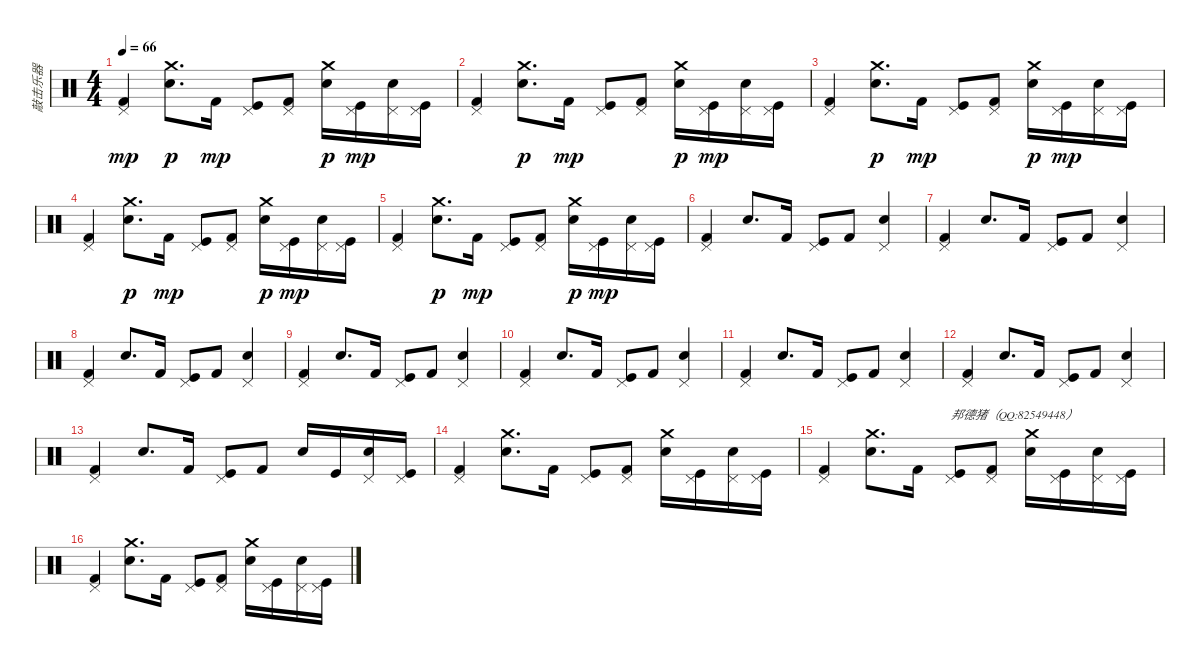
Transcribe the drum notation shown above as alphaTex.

\track ("敲击乐器" "敲击乐器") {instrument percussion}
\staff {score}
\articulation defaults
\ts (4 4)
\tempo 66
\clef neutral
\ks c
("Kick (hit) 2" "Pedal Hi-Hat (hit)").4{dy mp} ("Snare (hit) 2" "Crash medium (hit)").8{d dy p} "Kick (hit) 2".16{dy mp} ("Kick (hit)" "Pedal Hi-Hat (hit)").8 ("Kick (hit) 2" "Pedal Hi-Hat (hit)").8 ("Snare (hit) 2" "Crash medium (hit)").16{dy p} ("Kick (hit)" "Pedal Hi-Hat (hit)").16{dy mp} ("Snare (hit) 2" "Pedal Hi-Hat (hit)").16 ("Kick (hit)" "Pedal Hi-Hat (hit)").16 |
("Kick (hit) 2" "Pedal Hi-Hat (hit)").4 ("Snare (hit) 2" "Crash medium (hit)").8{d dy p} "Kick (hit) 2".16{dy mp} ("Kick (hit)" "Pedal Hi-Hat (hit)").8 ("Kick (hit) 2" "Pedal Hi-Hat (hit)").8 ("Snare (hit) 2" "Crash medium (hit)").16{dy p} ("Kick (hit)" "Pedal Hi-Hat (hit)").16{dy mp} ("Snare (hit) 2" "Pedal Hi-Hat (hit)").16 ("Kick (hit)" "Pedal Hi-Hat (hit)").16 |
("Kick (hit) 2" "Pedal Hi-Hat (hit)").4 ("Snare (hit) 2" "Crash medium (hit)").8{d dy p} "Kick (hit) 2".16{dy mp} ("Kick (hit)" "Pedal Hi-Hat (hit)").8 ("Kick (hit) 2" "Pedal Hi-Hat (hit)").8 ("Snare (hit) 2" "Crash medium (hit)").16{dy p} ("Kick (hit)" "Pedal Hi-Hat (hit)").16{dy mp} ("Snare (hit) 2" "Pedal Hi-Hat (hit)").16 ("Kick (hit)" "Pedal Hi-Hat (hit)").16 |
("Kick (hit) 2" "Pedal Hi-Hat (hit)").4 ("Snare (hit) 2" "Crash medium (hit)").8{d dy p} "Kick (hit) 2".16{dy mp} ("Kick (hit)" "Pedal Hi-Hat (hit)").8 ("Kick (hit) 2" "Pedal Hi-Hat (hit)").8 ("Snare (hit) 2" "Crash medium (hit)").16{dy p} ("Kick (hit)" "Pedal Hi-Hat (hit)").16{dy mp} ("Snare (hit) 2" "Pedal Hi-Hat (hit)").16 ("Kick (hit)" "Pedal Hi-Hat (hit)").16 |
("Kick (hit) 2" "Pedal Hi-Hat (hit)").4 ("Snare (hit) 2" "Crash medium (hit)").8{d dy p} "Kick (hit) 2".16{dy mp} ("Kick (hit)" "Pedal Hi-Hat (hit)").8 ("Kick (hit) 2" "Pedal Hi-Hat (hit)").8 ("Snare (hit) 2" "Crash medium (hit)").16{dy p} ("Kick (hit)" "Pedal Hi-Hat (hit)").16{dy mp} ("Snare (hit) 2" "Pedal Hi-Hat (hit)").16 ("Kick (hit)" "Pedal Hi-Hat (hit)").16 |
("Kick (hit) 2" "Pedal Hi-Hat (hit)").4 "Snare (hit) 2".8{d} "Kick (hit) 2".16 ("Kick (hit)" "Pedal Hi-Hat (hit)").8 "Kick (hit) 2".8 ("Snare (hit) 2" "Pedal Hi-Hat (hit)").4 |
("Kick (hit) 2" "Pedal Hi-Hat (hit)").4 "Snare (hit) 2".8{d} "Kick (hit) 2".16 ("Kick (hit)" "Pedal Hi-Hat (hit)").8 "Kick (hit) 2".8 ("Snare (hit) 2" "Pedal Hi-Hat (hit)").4 |
("Kick (hit) 2" "Pedal Hi-Hat (hit)").4 "Snare (hit) 2".8{d} "Kick (hit) 2".16 ("Kick (hit)" "Pedal Hi-Hat (hit)").8 "Kick (hit) 2".8 ("Snare (hit) 2" "Pedal Hi-Hat (hit)").4 |
("Kick (hit) 2" "Pedal Hi-Hat (hit)").4 "Snare (hit) 2".8{d} "Kick (hit) 2".16 ("Kick (hit)" "Pedal Hi-Hat (hit)").8 "Kick (hit) 2".8 ("Snare (hit) 2" "Pedal Hi-Hat (hit)").4 |
("Kick (hit) 2" "Pedal Hi-Hat (hit)").4 "Snare (hit) 2".8{d} "Kick (hit) 2".16 ("Kick (hit)" "Pedal Hi-Hat (hit)").8 "Kick (hit) 2".8 ("Snare (hit) 2" "Pedal Hi-Hat (hit)").4 |
("Kick (hit) 2" "Pedal Hi-Hat (hit)").4 "Snare (hit) 2".8{d} "Kick (hit) 2".16 ("Kick (hit)" "Pedal Hi-Hat (hit)").8 "Kick (hit) 2".8 ("Snare (hit) 2" "Pedal Hi-Hat (hit)").4 |
("Kick (hit) 2" "Pedal Hi-Hat (hit)").4 "Snare (hit) 2".8{d} "Kick (hit) 2".16 ("Kick (hit)" "Pedal Hi-Hat (hit)").8 "Kick (hit) 2".8 ("Snare (hit) 2" "Pedal Hi-Hat (hit)").4 |
("Kick (hit) 2" "Pedal Hi-Hat (hit)").4 "Snare (hit) 2".8{d} "Kick (hit) 2".16 ("Kick (hit)" "Pedal Hi-Hat (hit)").8 "Kick (hit) 2".8 "Snare (hit) 2".16 "Kick (hit)".16 ("Snare (hit) 2" "Pedal Hi-Hat (hit)").16 ("Kick (hit)" "Pedal Hi-Hat (hit)").16 |
("Kick (hit) 2" "Pedal Hi-Hat (hit)").4 ("Snare (hit) 2" "Crash medium (hit)").8{d} "Kick (hit) 2".16 ("Kick (hit)" "Pedal Hi-Hat (hit)").8 ("Kick (hit) 2" "Pedal Hi-Hat (hit)").8 ("Snare (hit) 2" "Crash medium (hit)").16 ("Kick (hit)" "Pedal Hi-Hat (hit)").16 ("Snare (hit) 2" "Pedal Hi-Hat (hit)").16 ("Kick (hit)" "Pedal Hi-Hat (hit)").16 |
("Kick (hit) 2" "Pedal Hi-Hat (hit)").4 ("Snare (hit) 2" "Crash medium (hit)").8{d} "Kick (hit) 2".16 ("Kick (hit)" "Pedal Hi-Hat (hit)").8{txt "邦德猪（QQ:82549448）"} ("Kick (hit) 2" "Pedal Hi-Hat (hit)").8 ("Snare (hit) 2" "Crash medium (hit)").16 ("Kick (hit)" "Pedal Hi-Hat (hit)").16 ("Snare (hit) 2" "Pedal Hi-Hat (hit)").16 ("Kick (hit)" "Pedal Hi-Hat (hit)").16 |
("Kick (hit) 2" "Pedal Hi-Hat (hit)").4 ("Snare (hit) 2" "Crash medium (hit)").8{d} "Kick (hit) 2".16 ("Kick (hit)" "Pedal Hi-Hat (hit)").8 ("Kick (hit) 2" "Pedal Hi-Hat (hit)").8 ("Snare (hit) 2" "Crash medium (hit)").16 ("Kick (hit)" "Pedal Hi-Hat (hit)").16 ("Snare (hit) 2" "Pedal Hi-Hat (hit)").16 ("Kick (hit)" "Pedal Hi-Hat (hit)").16
